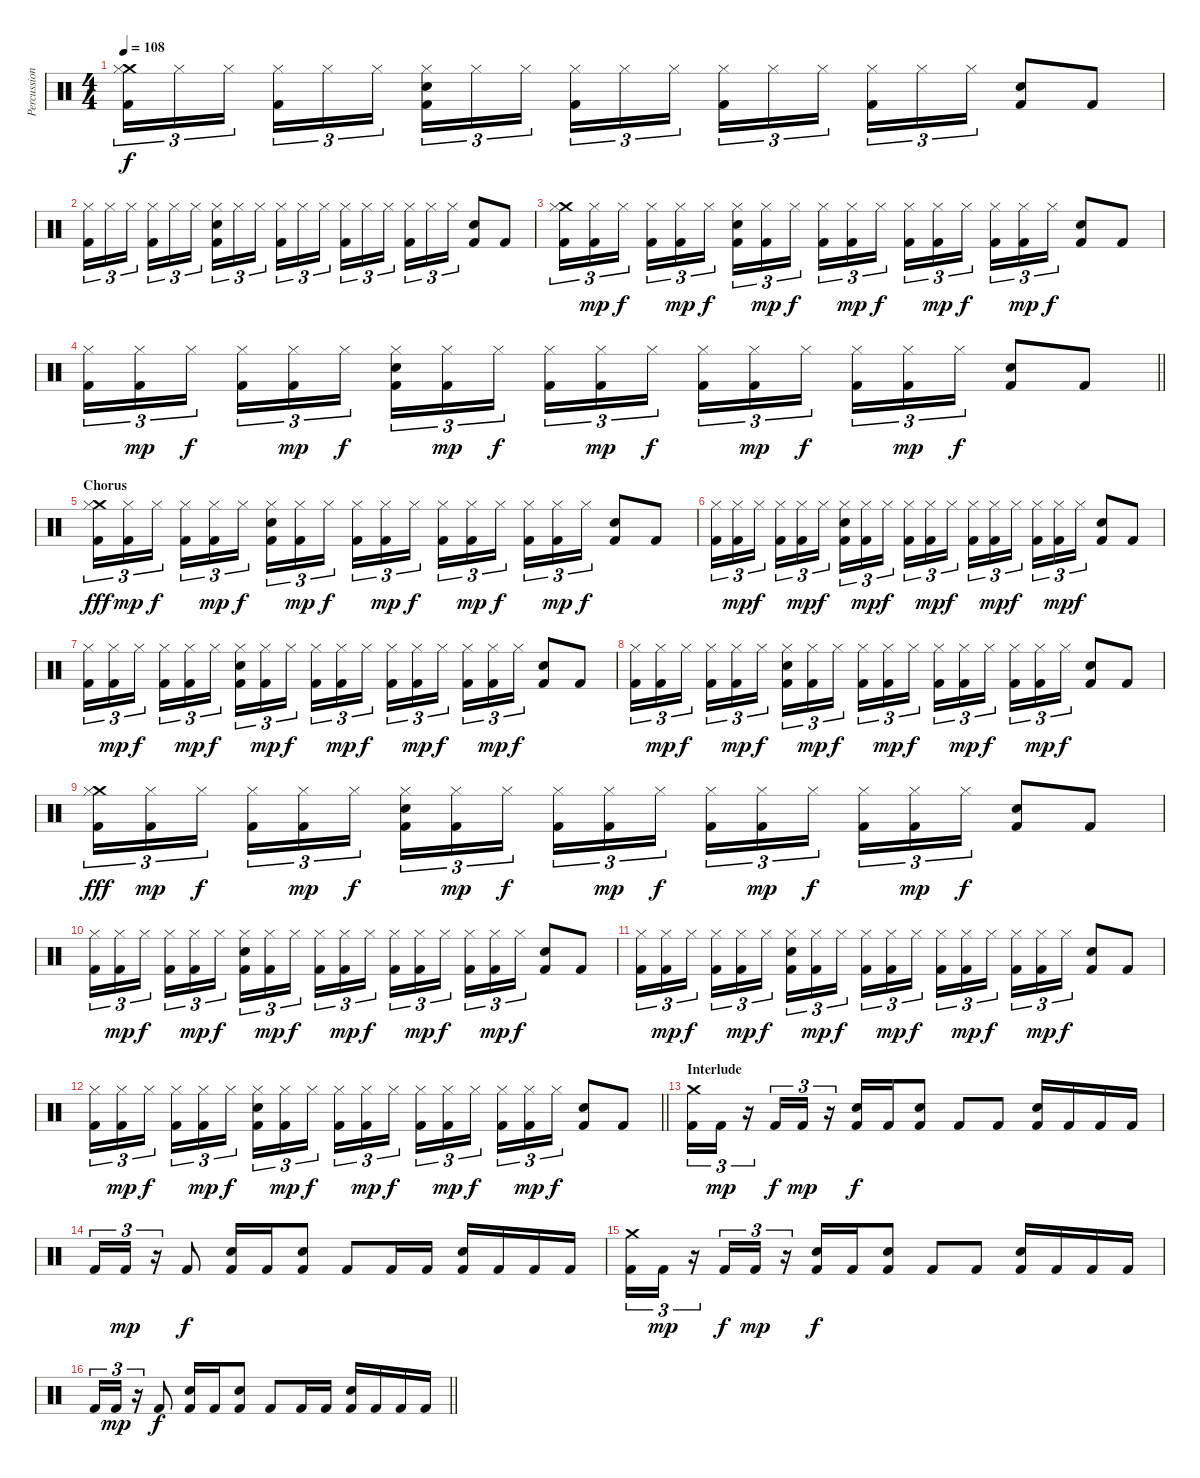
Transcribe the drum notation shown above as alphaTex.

\track ("Percussion" "Percussion") {instrument percussion}
\staff {score}
\articulation defaults
\ts (4 4)
\tempo 108
\clef neutral
\ks c
("Crash medium (hit)" "Hi-Hat (closed)" "Kick (hit) 2").16{tu (3 2) dy f} "Hi-Hat (closed)".16{tu (3 2)} "Hi-Hat (closed)".16{tu (3 2) beam splitsecondary} ("Hi-Hat (closed)" "Kick (hit) 2").16{tu (3 2)} "Hi-Hat (closed)".16{tu (3 2)} "Hi-Hat (closed)".16{tu (3 2)} ("Hi-Hat (closed)" "Electric Snare (hit)" "Kick (hit) 2").16{tu (3 2)} "Hi-Hat (closed)".16{tu (3 2)} "Hi-Hat (closed)".16{tu (3 2) beam splitsecondary} ("Hi-Hat (closed)" "Kick (hit) 2").16{tu (3 2)} "Hi-Hat (closed)".16{tu (3 2)} "Hi-Hat (closed)".16{tu (3 2)} ("Hi-Hat (closed)" "Kick (hit) 2").16{tu (3 2)} "Hi-Hat (closed)".16{tu (3 2)} "Hi-Hat (closed)".16{tu (3 2) beam splitsecondary} ("Hi-Hat (closed)" "Kick (hit) 2").16{tu (3 2)} "Hi-Hat (closed)".16{tu (3 2)} "Hi-Hat (closed)".16{tu (3 2)} ("Electric Snare (hit)" "Kick (hit) 2").8 "Kick (hit) 2".8 |
("Hi-Hat (closed)" "Kick (hit) 2").16{tu (3 2)} "Hi-Hat (closed)".16{tu (3 2)} "Hi-Hat (closed)".16{tu (3 2) beam splitsecondary} ("Hi-Hat (closed)" "Kick (hit) 2").16{tu (3 2)} "Hi-Hat (closed)".16{tu (3 2)} "Hi-Hat (closed)".16{tu (3 2)} ("Hi-Hat (closed)" "Electric Snare (hit)" "Kick (hit) 2").16{tu (3 2)} "Hi-Hat (closed)".16{tu (3 2)} "Hi-Hat (closed)".16{tu (3 2) beam splitsecondary} ("Hi-Hat (closed)" "Kick (hit) 2").16{tu (3 2)} "Hi-Hat (closed)".16{tu (3 2)} "Hi-Hat (closed)".16{tu (3 2)} ("Hi-Hat (closed)" "Kick (hit) 2").16{tu (3 2)} "Hi-Hat (closed)".16{tu (3 2)} "Hi-Hat (closed)".16{tu (3 2) beam splitsecondary} ("Hi-Hat (closed)" "Kick (hit) 2").16{tu (3 2)} "Hi-Hat (closed)".16{tu (3 2)} "Hi-Hat (closed)".16{tu (3 2)} ("Electric Snare (hit)" "Kick (hit) 2").8 "Kick (hit) 2".8 |
("Crash medium (hit)" "Hi-Hat (closed)" "Kick (hit) 2").16{tu (3 2)} ("Hi-Hat (closed)" "Kick (hit) 2").16{tu (3 2) dy mp} "Hi-Hat (closed)".16{tu (3 2) dy f beam splitsecondary} ("Hi-Hat (closed)" "Kick (hit) 2").16{tu (3 2)} ("Hi-Hat (closed)" "Kick (hit) 2").16{tu (3 2) dy mp} "Hi-Hat (closed)".16{tu (3 2) dy f} ("Hi-Hat (closed)" "Electric Snare (hit)" "Kick (hit) 2").16{tu (3 2)} ("Hi-Hat (closed)" "Kick (hit) 2").16{tu (3 2) dy mp} "Hi-Hat (closed)".16{tu (3 2) dy f beam splitsecondary} ("Hi-Hat (closed)" "Kick (hit) 2").16{tu (3 2)} ("Hi-Hat (closed)" "Kick (hit) 2").16{tu (3 2) dy mp} "Hi-Hat (closed)".16{tu (3 2) dy f} ("Hi-Hat (closed)" "Kick (hit) 2").16{tu (3 2)} ("Hi-Hat (closed)" "Kick (hit) 2").16{tu (3 2) dy mp} "Hi-Hat (closed)".16{tu (3 2) dy f beam splitsecondary} ("Hi-Hat (closed)" "Kick (hit) 2").16{tu (3 2)} ("Hi-Hat (closed)" "Kick (hit) 2").16{tu (3 2) dy mp} "Hi-Hat (closed)".16{tu (3 2) dy f} ("Electric Snare (hit)" "Kick (hit) 2").8 "Kick (hit) 2".8 |
\barLineRight lightlight
("Hi-Hat (closed)" "Kick (hit) 2").16{tu (3 2)} ("Hi-Hat (closed)" "Kick (hit) 2").16{tu (3 2) dy mp} "Hi-Hat (closed)".16{tu (3 2) dy f beam splitsecondary} ("Hi-Hat (closed)" "Kick (hit) 2").16{tu (3 2)} ("Hi-Hat (closed)" "Kick (hit) 2").16{tu (3 2) dy mp} "Hi-Hat (closed)".16{tu (3 2) dy f} ("Hi-Hat (closed)" "Electric Snare (hit)" "Kick (hit) 2").16{tu (3 2)} ("Hi-Hat (closed)" "Kick (hit) 2").16{tu (3 2) dy mp} "Hi-Hat (closed)".16{tu (3 2) dy f beam splitsecondary} ("Hi-Hat (closed)" "Kick (hit) 2").16{tu (3 2)} ("Hi-Hat (closed)" "Kick (hit) 2").16{tu (3 2) dy mp} "Hi-Hat (closed)".16{tu (3 2) dy f} ("Hi-Hat (closed)" "Kick (hit) 2").16{tu (3 2)} ("Hi-Hat (closed)" "Kick (hit) 2").16{tu (3 2) dy mp} "Hi-Hat (closed)".16{tu (3 2) dy f beam splitsecondary} ("Hi-Hat (closed)" "Kick (hit) 2").16{tu (3 2)} ("Hi-Hat (closed)" "Kick (hit) 2").16{tu (3 2) dy mp} "Hi-Hat (closed)".16{tu (3 2) dy f} ("Electric Snare (hit)" "Kick (hit) 2").8 "Kick (hit) 2".8 |
\section ("" "Chorus")
("Crash medium (hit)" "Hi-Hat (closed)" "Kick (hit) 2").16{tu (3 2) dy fff} ("Hi-Hat (closed)" "Kick (hit) 2").16{tu (3 2) dy mp} "Hi-Hat (closed)".16{tu (3 2) dy f beam splitsecondary} ("Hi-Hat (closed)" "Kick (hit) 2").16{tu (3 2)} ("Hi-Hat (closed)" "Kick (hit) 2").16{tu (3 2) dy mp} "Hi-Hat (closed)".16{tu (3 2) dy f} ("Hi-Hat (closed)" "Electric Snare (hit)" "Kick (hit) 2").16{tu (3 2)} ("Hi-Hat (closed)" "Kick (hit) 2").16{tu (3 2) dy mp} "Hi-Hat (closed)".16{tu (3 2) dy f beam splitsecondary} ("Hi-Hat (closed)" "Kick (hit) 2").16{tu (3 2)} ("Hi-Hat (closed)" "Kick (hit) 2").16{tu (3 2) dy mp} "Hi-Hat (closed)".16{tu (3 2) dy f} ("Hi-Hat (closed)" "Kick (hit) 2").16{tu (3 2)} ("Hi-Hat (closed)" "Kick (hit) 2").16{tu (3 2) dy mp} "Hi-Hat (closed)".16{tu (3 2) dy f beam splitsecondary} ("Hi-Hat (closed)" "Kick (hit) 2").16{tu (3 2)} ("Hi-Hat (closed)" "Kick (hit) 2").16{tu (3 2) dy mp} "Hi-Hat (closed)".16{tu (3 2) dy f} ("Electric Snare (hit)" "Kick (hit) 2").8 "Kick (hit) 2".8 |
("Hi-Hat (closed)" "Kick (hit) 2").16{tu (3 2)} ("Hi-Hat (closed)" "Kick (hit) 2").16{tu (3 2) dy mp} "Hi-Hat (closed)".16{tu (3 2) dy f beam splitsecondary} ("Hi-Hat (closed)" "Kick (hit) 2").16{tu (3 2)} ("Hi-Hat (closed)" "Kick (hit) 2").16{tu (3 2) dy mp} "Hi-Hat (closed)".16{tu (3 2) dy f} ("Hi-Hat (closed)" "Electric Snare (hit)" "Kick (hit) 2").16{tu (3 2)} ("Hi-Hat (closed)" "Kick (hit) 2").16{tu (3 2) dy mp} "Hi-Hat (closed)".16{tu (3 2) dy f beam splitsecondary} ("Hi-Hat (closed)" "Kick (hit) 2").16{tu (3 2)} ("Hi-Hat (closed)" "Kick (hit) 2").16{tu (3 2) dy mp} "Hi-Hat (closed)".16{tu (3 2) dy f} ("Hi-Hat (closed)" "Kick (hit) 2").16{tu (3 2)} ("Hi-Hat (closed)" "Kick (hit) 2").16{tu (3 2) dy mp} "Hi-Hat (closed)".16{tu (3 2) dy f beam splitsecondary} ("Hi-Hat (closed)" "Kick (hit) 2").16{tu (3 2)} ("Hi-Hat (closed)" "Kick (hit) 2").16{tu (3 2) dy mp} "Hi-Hat (closed)".16{tu (3 2) dy f} ("Electric Snare (hit)" "Kick (hit) 2").8 "Kick (hit) 2".8 |
("Hi-Hat (closed)" "Kick (hit) 2").16{tu (3 2)} ("Hi-Hat (closed)" "Kick (hit) 2").16{tu (3 2) dy mp} "Hi-Hat (closed)".16{tu (3 2) dy f beam splitsecondary} ("Hi-Hat (closed)" "Kick (hit) 2").16{tu (3 2)} ("Hi-Hat (closed)" "Kick (hit) 2").16{tu (3 2) dy mp} "Hi-Hat (closed)".16{tu (3 2) dy f} ("Hi-Hat (closed)" "Electric Snare (hit)" "Kick (hit) 2").16{tu (3 2)} ("Hi-Hat (closed)" "Kick (hit) 2").16{tu (3 2) dy mp} "Hi-Hat (closed)".16{tu (3 2) dy f beam splitsecondary} ("Hi-Hat (closed)" "Kick (hit) 2").16{tu (3 2)} ("Hi-Hat (closed)" "Kick (hit) 2").16{tu (3 2) dy mp} "Hi-Hat (closed)".16{tu (3 2) dy f} ("Hi-Hat (closed)" "Kick (hit) 2").16{tu (3 2)} ("Hi-Hat (closed)" "Kick (hit) 2").16{tu (3 2) dy mp} "Hi-Hat (closed)".16{tu (3 2) dy f beam splitsecondary} ("Hi-Hat (closed)" "Kick (hit) 2").16{tu (3 2)} ("Hi-Hat (closed)" "Kick (hit) 2").16{tu (3 2) dy mp} "Hi-Hat (closed)".16{tu (3 2) dy f} ("Electric Snare (hit)" "Kick (hit) 2").8 "Kick (hit) 2".8 |
("Hi-Hat (closed)" "Kick (hit) 2").16{tu (3 2)} ("Hi-Hat (closed)" "Kick (hit) 2").16{tu (3 2) dy mp} "Hi-Hat (closed)".16{tu (3 2) dy f beam splitsecondary} ("Hi-Hat (closed)" "Kick (hit) 2").16{tu (3 2)} ("Hi-Hat (closed)" "Kick (hit) 2").16{tu (3 2) dy mp} "Hi-Hat (closed)".16{tu (3 2) dy f} ("Hi-Hat (closed)" "Electric Snare (hit)" "Kick (hit) 2").16{tu (3 2)} ("Hi-Hat (closed)" "Kick (hit) 2").16{tu (3 2) dy mp} "Hi-Hat (closed)".16{tu (3 2) dy f beam splitsecondary} ("Hi-Hat (closed)" "Kick (hit) 2").16{tu (3 2)} ("Hi-Hat (closed)" "Kick (hit) 2").16{tu (3 2) dy mp} "Hi-Hat (closed)".16{tu (3 2) dy f} ("Hi-Hat (closed)" "Kick (hit) 2").16{tu (3 2)} ("Hi-Hat (closed)" "Kick (hit) 2").16{tu (3 2) dy mp} "Hi-Hat (closed)".16{tu (3 2) dy f beam splitsecondary} ("Hi-Hat (closed)" "Kick (hit) 2").16{tu (3 2)} ("Hi-Hat (closed)" "Kick (hit) 2").16{tu (3 2) dy mp} "Hi-Hat (closed)".16{tu (3 2) dy f} ("Electric Snare (hit)" "Kick (hit) 2").8 "Kick (hit) 2".8 |
("Crash medium (hit)" "Hi-Hat (closed)" "Kick (hit) 2").16{tu (3 2) dy fff} ("Hi-Hat (closed)" "Kick (hit) 2").16{tu (3 2) dy mp} "Hi-Hat (closed)".16{tu (3 2) dy f beam splitsecondary} ("Hi-Hat (closed)" "Kick (hit) 2").16{tu (3 2)} ("Hi-Hat (closed)" "Kick (hit) 2").16{tu (3 2) dy mp} "Hi-Hat (closed)".16{tu (3 2) dy f} ("Hi-Hat (closed)" "Electric Snare (hit)" "Kick (hit) 2").16{tu (3 2)} ("Hi-Hat (closed)" "Kick (hit) 2").16{tu (3 2) dy mp} "Hi-Hat (closed)".16{tu (3 2) dy f beam splitsecondary} ("Hi-Hat (closed)" "Kick (hit) 2").16{tu (3 2)} ("Hi-Hat (closed)" "Kick (hit) 2").16{tu (3 2) dy mp} "Hi-Hat (closed)".16{tu (3 2) dy f} ("Hi-Hat (closed)" "Kick (hit) 2").16{tu (3 2)} ("Hi-Hat (closed)" "Kick (hit) 2").16{tu (3 2) dy mp} "Hi-Hat (closed)".16{tu (3 2) dy f beam splitsecondary} ("Hi-Hat (closed)" "Kick (hit) 2").16{tu (3 2)} ("Hi-Hat (closed)" "Kick (hit) 2").16{tu (3 2) dy mp} "Hi-Hat (closed)".16{tu (3 2) dy f} ("Electric Snare (hit)" "Kick (hit) 2").8 "Kick (hit) 2".8 |
("Hi-Hat (closed)" "Kick (hit) 2").16{tu (3 2)} ("Hi-Hat (closed)" "Kick (hit) 2").16{tu (3 2) dy mp} "Hi-Hat (closed)".16{tu (3 2) dy f beam splitsecondary} ("Hi-Hat (closed)" "Kick (hit) 2").16{tu (3 2)} ("Hi-Hat (closed)" "Kick (hit) 2").16{tu (3 2) dy mp} "Hi-Hat (closed)".16{tu (3 2) dy f} ("Hi-Hat (closed)" "Electric Snare (hit)" "Kick (hit) 2").16{tu (3 2)} ("Hi-Hat (closed)" "Kick (hit) 2").16{tu (3 2) dy mp} "Hi-Hat (closed)".16{tu (3 2) dy f beam splitsecondary} ("Hi-Hat (closed)" "Kick (hit) 2").16{tu (3 2)} ("Hi-Hat (closed)" "Kick (hit) 2").16{tu (3 2) dy mp} "Hi-Hat (closed)".16{tu (3 2) dy f} ("Hi-Hat (closed)" "Kick (hit) 2").16{tu (3 2)} ("Hi-Hat (closed)" "Kick (hit) 2").16{tu (3 2) dy mp} "Hi-Hat (closed)".16{tu (3 2) dy f beam splitsecondary} ("Hi-Hat (closed)" "Kick (hit) 2").16{tu (3 2)} ("Hi-Hat (closed)" "Kick (hit) 2").16{tu (3 2) dy mp} "Hi-Hat (closed)".16{tu (3 2) dy f} ("Electric Snare (hit)" "Kick (hit) 2").8 "Kick (hit) 2".8 |
("Hi-Hat (closed)" "Kick (hit) 2").16{tu (3 2)} ("Hi-Hat (closed)" "Kick (hit) 2").16{tu (3 2) dy mp} "Hi-Hat (closed)".16{tu (3 2) dy f beam splitsecondary} ("Hi-Hat (closed)" "Kick (hit) 2").16{tu (3 2)} ("Hi-Hat (closed)" "Kick (hit) 2").16{tu (3 2) dy mp} "Hi-Hat (closed)".16{tu (3 2) dy f} ("Hi-Hat (closed)" "Electric Snare (hit)" "Kick (hit) 2").16{tu (3 2)} ("Hi-Hat (closed)" "Kick (hit) 2").16{tu (3 2) dy mp} "Hi-Hat (closed)".16{tu (3 2) dy f beam splitsecondary} ("Hi-Hat (closed)" "Kick (hit) 2").16{tu (3 2)} ("Hi-Hat (closed)" "Kick (hit) 2").16{tu (3 2) dy mp} "Hi-Hat (closed)".16{tu (3 2) dy f} ("Hi-Hat (closed)" "Kick (hit) 2").16{tu (3 2)} ("Hi-Hat (closed)" "Kick (hit) 2").16{tu (3 2) dy mp} "Hi-Hat (closed)".16{tu (3 2) dy f beam splitsecondary} ("Hi-Hat (closed)" "Kick (hit) 2").16{tu (3 2)} ("Hi-Hat (closed)" "Kick (hit) 2").16{tu (3 2) dy mp} "Hi-Hat (closed)".16{tu (3 2) dy f} ("Electric Snare (hit)" "Kick (hit) 2").8 "Kick (hit) 2".8 |
\barLineRight lightlight
("Hi-Hat (closed)" "Kick (hit) 2").16{tu (3 2)} ("Hi-Hat (closed)" "Kick (hit) 2").16{tu (3 2) dy mp} "Hi-Hat (closed)".16{tu (3 2) dy f beam splitsecondary} ("Hi-Hat (closed)" "Kick (hit) 2").16{tu (3 2)} ("Hi-Hat (closed)" "Kick (hit) 2").16{tu (3 2) dy mp} "Hi-Hat (closed)".16{tu (3 2) dy f} ("Hi-Hat (closed)" "Electric Snare (hit)" "Kick (hit) 2").16{tu (3 2)} ("Hi-Hat (closed)" "Kick (hit) 2").16{tu (3 2) dy mp} "Hi-Hat (closed)".16{tu (3 2) dy f beam splitsecondary} ("Hi-Hat (closed)" "Kick (hit) 2").16{tu (3 2)} ("Hi-Hat (closed)" "Kick (hit) 2").16{tu (3 2) dy mp} "Hi-Hat (closed)".16{tu (3 2) dy f} ("Hi-Hat (closed)" "Kick (hit) 2").16{tu (3 2)} ("Hi-Hat (closed)" "Kick (hit) 2").16{tu (3 2) dy mp} "Hi-Hat (closed)".16{tu (3 2) dy f beam splitsecondary} ("Hi-Hat (closed)" "Kick (hit) 2").16{tu (3 2)} ("Hi-Hat (closed)" "Kick (hit) 2").16{tu (3 2) dy mp} "Hi-Hat (closed)".16{tu (3 2) dy f} ("Electric Snare (hit)" "Kick (hit) 2").8 "Kick (hit) 2".8 |
\section ("" "Interlude")
("Crash medium (hit)" "Kick (hit) 2").16{tu (3 2)} "Kick (hit) 2".16{tu (3 2) dy mp} r.16{tu (3 2)} "Kick (hit) 2".16{tu (3 2) dy f} "Kick (hit) 2".16{tu (3 2) dy mp} r.16{tu (3 2)} ("Electric Snare (hit)" "Kick (hit) 2").16{dy f} "Kick (hit) 2".16 ("Electric Snare (hit)" "Kick (hit) 2").8 "Kick (hit) 2".8 "Kick (hit) 2".8 ("Electric Snare (hit)" "Kick (hit) 2").16 "Kick (hit) 2".16 "Kick (hit) 2".16 "Kick (hit) 2".16 |
"Kick (hit) 2".16{tu (3 2)} "Kick (hit) 2".16{tu (3 2) dy mp} r.16{tu (3 2)} "Kick (hit) 2".8{dy f} ("Electric Snare (hit)" "Kick (hit) 2").16 "Kick (hit) 2".16 ("Electric Snare (hit)" "Kick (hit) 2").8 "Kick (hit) 2".8 "Kick (hit) 2".16 "Kick (hit) 2".16 ("Electric Snare (hit)" "Kick (hit) 2").16 "Kick (hit) 2".16 "Kick (hit) 2".16 "Kick (hit) 2".16 |
("Crash medium (hit)" "Kick (hit) 2").16{tu (3 2)} "Kick (hit) 2".16{tu (3 2) dy mp} r.16{tu (3 2)} "Kick (hit) 2".16{tu (3 2) dy f} "Kick (hit) 2".16{tu (3 2) dy mp} r.16{tu (3 2)} ("Electric Snare (hit)" "Kick (hit) 2").16{dy f} "Kick (hit) 2".16 ("Electric Snare (hit)" "Kick (hit) 2").8 "Kick (hit) 2".8 "Kick (hit) 2".8 ("Electric Snare (hit)" "Kick (hit) 2").16 "Kick (hit) 2".16 "Kick (hit) 2".16 "Kick (hit) 2".16 |
\barLineRight lightlight "Kick (hit) 2".16{tu (3 2)} "Kick (hit) 2".16{tu (3 2) dy mp}
r.16{tu (3 2)} "Kick (hit) 2".8{dy f} ("Electric Snare (hit)" "Kick (hit) 2").16 "Kick (hit) 2".16 ("Electric Snare (hit)" "Kick (hit) 2").8 "Kick (hit) 2".8 "Kick (hit) 2".16 "Kick (hit) 2".16 ("Electric Snare (hit)" "Kick (hit) 2").16 "Kick (hit) 2".16 "Kick (hit) 2".16 "Kick (hit) 2".16
